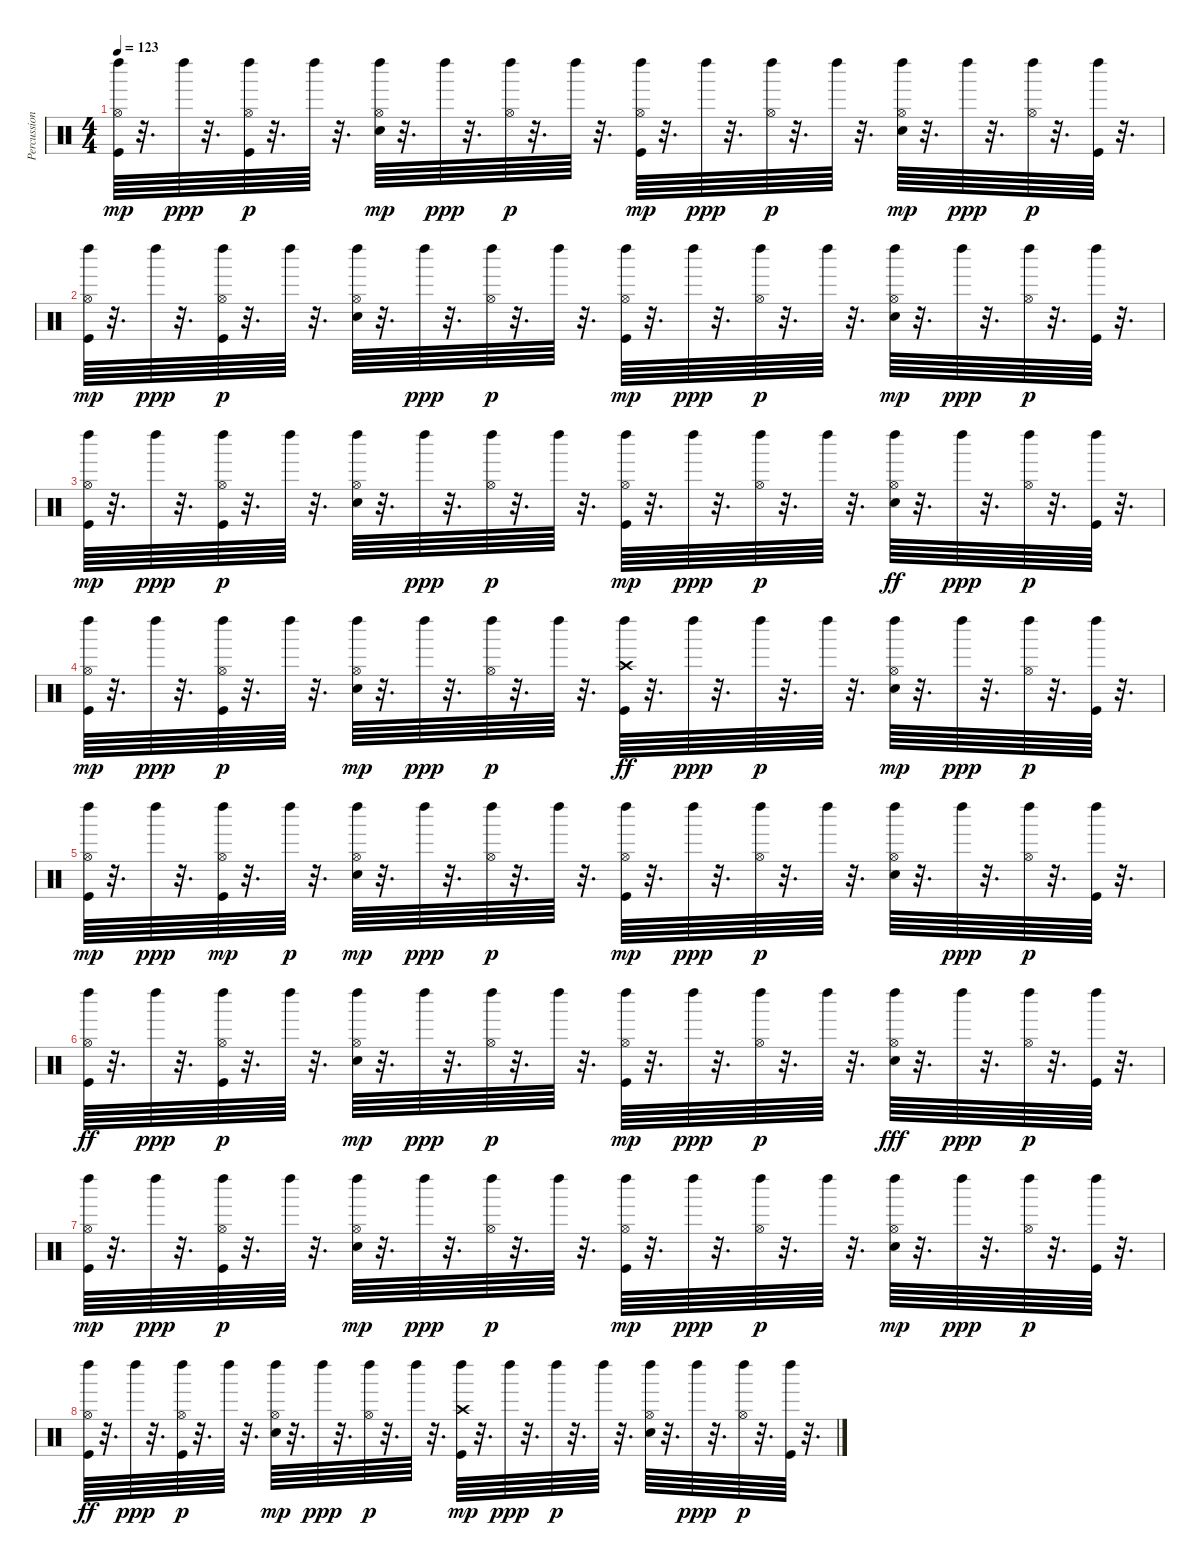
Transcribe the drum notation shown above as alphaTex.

\track ("Percussion" "Percussion") {instrument percussion}
\staff {score}
\articulation defaults
\ts (4 4)
\tempo 123
\clef neutral
\ks c
("Kick (hit)" "Hi-Hat (open)" "Left Maraca (hit)").64{dy mp} r.32{d} "Left Maraca (hit)".64{dy ppp} r.32{d} ("Kick (hit)" "Hi-Hat (open)" "Left Maraca (hit)").64{dy p} r.32{d} "Left Maraca (hit)".64 r.32{d} ("Electric Snare (hit)" "Hi-Hat (open)" "Left Maraca (hit)").64{dy mp} r.32{d} "Left Maraca (hit)".64{dy ppp} r.32{d} ("Hi-Hat (open)" "Left Maraca (hit)").64{dy p} r.32{d} "Left Maraca (hit)".64 r.32{d} ("Kick (hit)" "Hi-Hat (open)" "Left Maraca (hit)").64{dy mp} r.32{d} "Left Maraca (hit)".64{dy ppp} r.32{d} ("Hi-Hat (open)" "Left Maraca (hit)").64{dy p} r.32{d} "Left Maraca (hit)".64 r.32{d} ("Electric Snare (hit)" "Hi-Hat (open)" "Left Maraca (hit)").64{dy mp} r.32{d} "Left Maraca (hit)".64{dy ppp} r.32{d} ("Hi-Hat (open)" "Left Maraca (hit)").64{dy p} r.32{d} ("Kick (hit)" "Left Maraca (hit)").64 r.32{d} |
("Kick (hit)" "Hi-Hat (open)" "Left Maraca (hit)").64{dy mp} r.32{d} "Left Maraca (hit)".64{dy ppp} r.32{d} ("Kick (hit)" "Hi-Hat (open)" "Left Maraca (hit)").64{dy p} r.32{d} "Left Maraca (hit)".64 r.32{d} ("Left Maraca (hit)" "Electric Snare (hit)" "Hi-Hat (open)").64 r.32{d} "Left Maraca (hit)".64{dy ppp} r.32{d} ("Hi-Hat (open)" "Left Maraca (hit)").64{dy p} r.32{d} "Left Maraca (hit)".64 r.32{d} ("Kick (hit)" "Hi-Hat (open)" "Left Maraca (hit)").64{dy mp} r.32{d} "Left Maraca (hit)".64{dy ppp} r.32{d} ("Hi-Hat (open)" "Left Maraca (hit)").64{dy p} r.32{d} "Left Maraca (hit)".64 r.32{d} ("Electric Snare (hit)" "Hi-Hat (open)" "Left Maraca (hit)").64{dy mp} r.32{d} "Left Maraca (hit)".64{dy ppp} r.32{d} ("Hi-Hat (open)" "Left Maraca (hit)").64{dy p} r.32{d} ("Kick (hit)" "Left Maraca (hit)").64 r.32{d} |
("Kick (hit)" "Hi-Hat (open)" "Left Maraca (hit)").64{dy mp} r.32{d} "Left Maraca (hit)".64{dy ppp} r.32{d} ("Kick (hit)" "Hi-Hat (open)" "Left Maraca (hit)").64{dy p} r.32{d} "Left Maraca (hit)".64 r.32{d} ("Left Maraca (hit)" "Electric Snare (hit)" "Hi-Hat (open)").64 r.32{d} "Left Maraca (hit)".64{dy ppp} r.32{d} ("Hi-Hat (open)" "Left Maraca (hit)").64{dy p} r.32{d} "Left Maraca (hit)".64 r.32{d} ("Kick (hit)" "Hi-Hat (open)" "Left Maraca (hit)").64{dy mp} r.32{d} "Left Maraca (hit)".64{dy ppp} r.32{d} ("Hi-Hat (open)" "Left Maraca (hit)").64{dy p} r.32{d} "Left Maraca (hit)".64 r.32{d} ("Hi-Hat (open)" "Left Maraca (hit)" "Electric Snare (hit)").64{dy ff} r.32{d} "Left Maraca (hit)".64{dy ppp} r.32{d} ("Hi-Hat (open)" "Left Maraca (hit)").64{dy p} r.32{d} ("Kick (hit)" "Left Maraca (hit)").64 r.32{d} |
("Kick (hit)" "Hi-Hat (open)" "Left Maraca (hit)").64{dy mp} r.32{d} "Left Maraca (hit)".64{dy ppp} r.32{d} ("Left Maraca (hit)" "Kick (hit)" "Hi-Hat (open)").64{dy p} r.32{d} "Left Maraca (hit)".64 r.32{d} ("Electric Snare (hit)" "Hi-Hat (open)" "Left Maraca (hit)").64{dy mp} r.32{d} "Left Maraca (hit)".64{dy ppp} r.32{d} ("Hi-Hat (open)" "Left Maraca (hit)").64{dy p} r.32{d} "Left Maraca (hit)".64 r.32{d} ("Crash high (hit)" "Left Maraca (hit)" "Kick (hit)").64{dy ff} r.32{d} "Left Maraca (hit)".64{dy ppp} r.32{d} "Left Maraca (hit)".64{dy p} r.32{d} "Left Maraca (hit)".64 r.32{d} ("Electric Snare (hit)" "Hi-Hat (open)" "Left Maraca (hit)").64{dy mp} r.32{d} "Left Maraca (hit)".64{dy ppp} r.32{d} ("Hi-Hat (open)" "Left Maraca (hit)").64{dy p} r.32{d} ("Kick (hit)" "Left Maraca (hit)").64 r.32{d} |
("Kick (hit)" "Hi-Hat (open)" "Left Maraca (hit)").64{dy mp} r.32{d} "Left Maraca (hit)".64{dy ppp} r.32{d} ("Hi-Hat (open)" "Left Maraca (hit)" "Kick (hit)").64{dy mp} r.32{d} "Left Maraca (hit)".64{dy p} r.32{d} ("Electric Snare (hit)" "Hi-Hat (open)" "Left Maraca (hit)").64{dy mp} r.32{d} "Left Maraca (hit)".64{dy ppp} r.32{d} ("Hi-Hat (open)" "Left Maraca (hit)").64{dy p} r.32{d} "Left Maraca (hit)".64 r.32{d} ("Kick (hit)" "Hi-Hat (open)" "Left Maraca (hit)").64{dy mp} r.32{d} "Left Maraca (hit)".64{dy ppp} r.32{d} ("Hi-Hat (open)" "Left Maraca (hit)").64{dy p} r.32{d} "Left Maraca (hit)".64 r.32{d} ("Left Maraca (hit)" "Electric Snare (hit)" "Hi-Hat (open)").64 r.32{d} "Left Maraca (hit)".64{dy ppp} r.32{d} ("Hi-Hat (open)" "Left Maraca (hit)").64{dy p} r.32{d} ("Kick (hit)" "Left Maraca (hit)").64 r.32{d} |
("Hi-Hat (open)" "Left Maraca (hit)" "Kick (hit)").64{dy ff} r.32{d} "Left Maraca (hit)".64{dy ppp} r.32{d} ("Kick (hit)" "Hi-Hat (open)" "Left Maraca (hit)").64{dy p} r.32{d} "Left Maraca (hit)".64 r.32{d} ("Electric Snare (hit)" "Hi-Hat (open)" "Left Maraca (hit)").64{dy mp} r.32{d} "Left Maraca (hit)".64{dy ppp} r.32{d} ("Hi-Hat (open)" "Left Maraca (hit)").64{dy p} r.32{d} "Left Maraca (hit)".64 r.32{d} ("Left Maraca (hit)" "Kick (hit)" "Hi-Hat (open)").64{dy mp} r.32{d} "Left Maraca (hit)".64{dy ppp} r.32{d} ("Hi-Hat (open)" "Left Maraca (hit)").64{dy p} r.32{d} "Left Maraca (hit)".64 r.32{d} ("Hi-Hat (open)" "Left Maraca (hit)" "Electric Snare (hit)").64{dy fff} r.32{d} "Left Maraca (hit)".64{dy ppp} r.32{d} ("Hi-Hat (open)" "Left Maraca (hit)").64{dy p} r.32{d} ("Kick (hit)" "Left Maraca (hit)").64 r.32{d} |
("Kick (hit)" "Hi-Hat (open)" "Left Maraca (hit)").64{dy mp} r.32{d} "Left Maraca (hit)".64{dy ppp} r.32{d} ("Left Maraca (hit)" "Kick (hit)" "Hi-Hat (open)").64{dy p} r.32{d} "Left Maraca (hit)".64 r.32{d} ("Electric Snare (hit)" "Hi-Hat (open)" "Left Maraca (hit)").64{dy mp} r.32{d} "Left Maraca (hit)".64{dy ppp} r.32{d} ("Hi-Hat (open)" "Left Maraca (hit)").64{dy p} r.32{d} "Left Maraca (hit)".64 r.32{d} ("Kick (hit)" "Hi-Hat (open)" "Left Maraca (hit)").64{dy mp} r.32{d} "Left Maraca (hit)".64{dy ppp} r.32{d} ("Hi-Hat (open)" "Left Maraca (hit)").64{dy p} r.32{d} "Left Maraca (hit)".64 r.32{d} ("Electric Snare (hit)" "Hi-Hat (open)" "Left Maraca (hit)").64{dy mp} r.32{d} "Left Maraca (hit)".64{dy ppp} r.32{d} ("Hi-Hat (open)" "Left Maraca (hit)").64{dy p} r.32{d} ("Kick (hit)" "Left Maraca (hit)").64 r.32{d} |
("Hi-Hat (open)" "Left Maraca (hit)" "Kick (hit)").64{dy ff} r.32{d} "Left Maraca (hit)".64{dy ppp} r.32{d} ("Kick (hit)" "Hi-Hat (open)" "Left Maraca (hit)").64{dy p} r.32{d} "Left Maraca (hit)".64 r.32{d} ("Electric Snare (hit)" "Hi-Hat (open)" "Left Maraca (hit)").64{dy mp} r.32{d} "Left Maraca (hit)".64{dy ppp} r.32{d} ("Hi-Hat (open)" "Left Maraca (hit)").64{dy p} r.32{d} "Left Maraca (hit)".64 r.32{d} ("Kick (hit)" "Crash high (hit)" "Left Maraca (hit)").64{dy mp} r.32{d} "Left Maraca (hit)".64{dy ppp} r.32{d} "Left Maraca (hit)".64{dy p} r.32{d} "Left Maraca (hit)".64 r.32{d} ("Left Maraca (hit)" "Electric Snare (hit)" "Hi-Hat (open)").64 r.32{d} "Left Maraca (hit)".64{dy ppp} r.32{d} ("Hi-Hat (open)" "Left Maraca (hit)").64{dy p} r.32{d} ("Kick (hit)" "Left Maraca (hit)").64 r.32{d}
